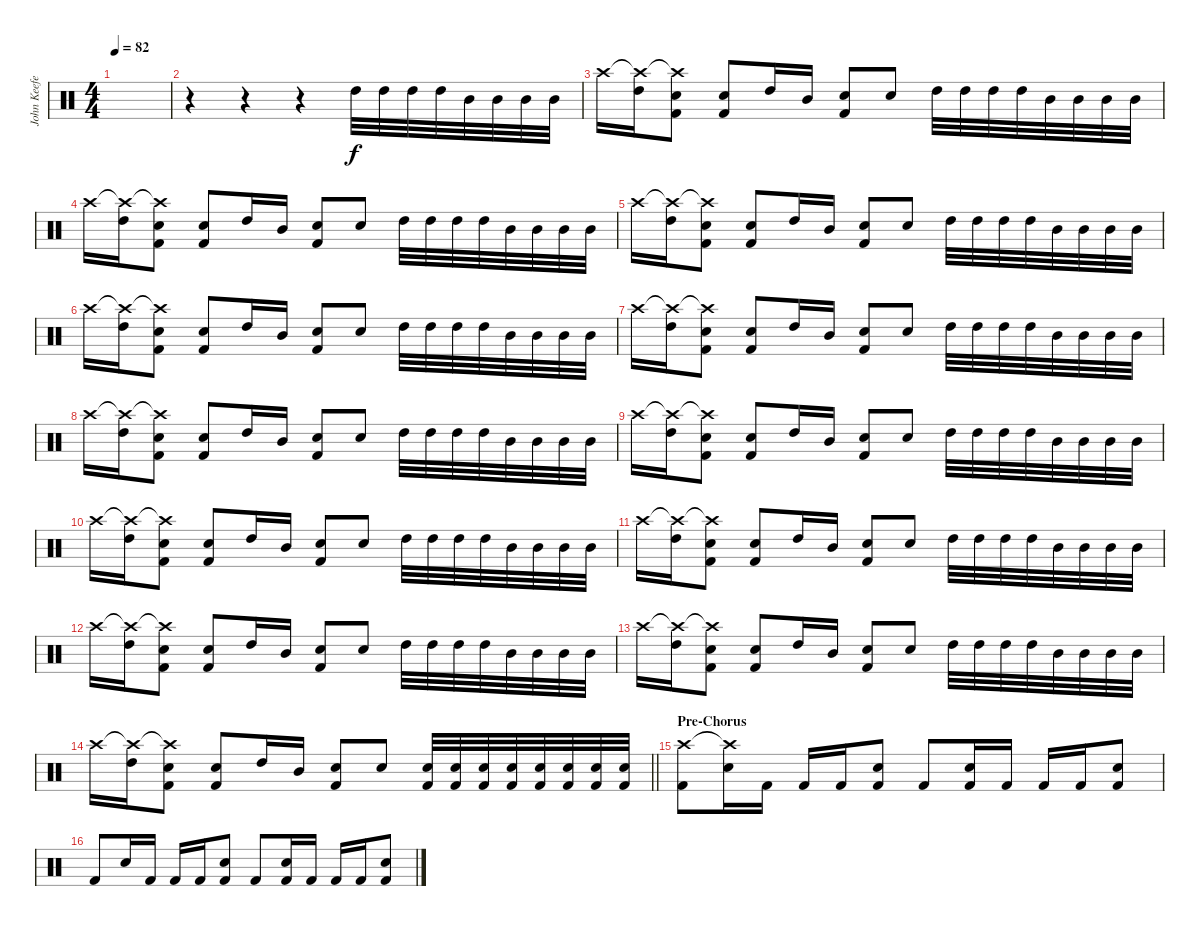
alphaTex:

\track ("John Keefe (Percussion)" "John Keefe") {instrument percussion}
\staff {score}
\articulation defaults
\ts (4 4)
\tempo 82
\clef neutral
\ks c
|
r.4 r.4 r.4 "High Tom (hit)".32 "High Tom (hit)".32 "High Tom (hit)".32 "High Tom (hit)".32 "Mid Tom (hit)".32 "Mid Tom (hit)".32 "Mid Tom (hit)".32 "Mid Tom (hit)".32 |
"Crash high (hit)".16 ("Crash high (hit)"{t} "High Tom (hit)").16 ("Crash high (hit)"{t} "Snare (hit) 2" "Kick (hit) 2").8 ("Snare (hit) 2" "Kick (hit) 2").8 "High Tom (hit)".16 "Mid Tom (hit)".16 ("Snare (hit) 2" "Kick (hit) 2").8 "Snare (hit) 2".8 "High Tom (hit)".32 "High Tom (hit)".32 "High Tom (hit)".32 "High Tom (hit)".32 "Mid Tom (hit)".32 "Mid Tom (hit)".32 "Mid Tom (hit)".32 "Mid Tom (hit)".32 |
"Crash high (hit)".16 ("Crash high (hit)"{t} "High Tom (hit)").16 ("Crash high (hit)"{t} "Snare (hit) 2" "Kick (hit) 2").8 ("Snare (hit) 2" "Kick (hit) 2").8 "High Tom (hit)".16 "Mid Tom (hit)".16 ("Snare (hit) 2" "Kick (hit) 2").8 "Snare (hit) 2".8 "High Tom (hit)".32 "High Tom (hit)".32 "High Tom (hit)".32 "High Tom (hit)".32 "Mid Tom (hit)".32 "Mid Tom (hit)".32 "Mid Tom (hit)".32 "Mid Tom (hit)".32 |
"Crash high (hit)".16 ("Crash high (hit)"{t} "High Tom (hit)").16 ("Crash high (hit)"{t} "Snare (hit) 2" "Kick (hit) 2").8 ("Snare (hit) 2" "Kick (hit) 2").8 "High Tom (hit)".16 "Mid Tom (hit)".16 ("Snare (hit) 2" "Kick (hit) 2").8 "Snare (hit) 2".8 "High Tom (hit)".32 "High Tom (hit)".32 "High Tom (hit)".32 "High Tom (hit)".32 "Mid Tom (hit)".32 "Mid Tom (hit)".32 "Mid Tom (hit)".32 "Mid Tom (hit)".32 |
"Crash high (hit)".16 ("Crash high (hit)"{t} "High Tom (hit)").16 ("Crash high (hit)"{t} "Snare (hit) 2" "Kick (hit) 2").8 ("Snare (hit) 2" "Kick (hit) 2").8 "High Tom (hit)".16 "Mid Tom (hit)".16 ("Snare (hit) 2" "Kick (hit) 2").8 "Snare (hit) 2".8 "High Tom (hit)".32 "High Tom (hit)".32 "High Tom (hit)".32 "High Tom (hit)".32 "Mid Tom (hit)".32 "Mid Tom (hit)".32 "Mid Tom (hit)".32 "Mid Tom (hit)".32 |
"Crash high (hit)".16 ("Crash high (hit)"{t} "High Tom (hit)").16 ("Crash high (hit)"{t} "Snare (hit) 2" "Kick (hit) 2").8 ("Snare (hit) 2" "Kick (hit) 2").8 "High Tom (hit)".16 "Mid Tom (hit)".16 ("Snare (hit) 2" "Kick (hit) 2").8 "Snare (hit) 2".8 "High Tom (hit)".32 "High Tom (hit)".32 "High Tom (hit)".32 "High Tom (hit)".32 "Mid Tom (hit)".32 "Mid Tom (hit)".32 "Mid Tom (hit)".32 "Mid Tom (hit)".32 |
"Crash high (hit)".16 ("Crash high (hit)"{t} "High Tom (hit)").16 ("Crash high (hit)"{t} "Snare (hit) 2" "Kick (hit) 2").8 ("Snare (hit) 2" "Kick (hit) 2").8 "High Tom (hit)".16 "Mid Tom (hit)".16 ("Snare (hit) 2" "Kick (hit) 2").8 "Snare (hit) 2".8 "High Tom (hit)".32 "High Tom (hit)".32 "High Tom (hit)".32 "High Tom (hit)".32 "Mid Tom (hit)".32 "Mid Tom (hit)".32 "Mid Tom (hit)".32 "Mid Tom (hit)".32 |
"Crash high (hit)".16 ("Crash high (hit)"{t} "High Tom (hit)").16 ("Crash high (hit)"{t} "Snare (hit) 2" "Kick (hit) 2").8 ("Snare (hit) 2" "Kick (hit) 2").8 "High Tom (hit)".16 "Mid Tom (hit)".16 ("Snare (hit) 2" "Kick (hit) 2").8 "Snare (hit) 2".8 "High Tom (hit)".32 "High Tom (hit)".32 "High Tom (hit)".32 "High Tom (hit)".32 "Mid Tom (hit)".32 "Mid Tom (hit)".32 "Mid Tom (hit)".32 "Mid Tom (hit)".32 |
"Crash high (hit)".16 ("Crash high (hit)"{t} "High Tom (hit)").16 ("Crash high (hit)"{t} "Snare (hit) 2" "Kick (hit) 2").8 ("Snare (hit) 2" "Kick (hit) 2").8 "High Tom (hit)".16 "Mid Tom (hit)".16 ("Snare (hit) 2" "Kick (hit) 2").8 "Snare (hit) 2".8 "High Tom (hit)".32 "High Tom (hit)".32 "High Tom (hit)".32 "High Tom (hit)".32 "Mid Tom (hit)".32 "Mid Tom (hit)".32 "Mid Tom (hit)".32 "Mid Tom (hit)".32 |
"Crash high (hit)".16 ("Crash high (hit)"{t} "High Tom (hit)").16 ("Crash high (hit)"{t} "Snare (hit) 2" "Kick (hit) 2").8 ("Snare (hit) 2" "Kick (hit) 2").8 "High Tom (hit)".16 "Mid Tom (hit)".16 ("Snare (hit) 2" "Kick (hit) 2").8 "Snare (hit) 2".8 "High Tom (hit)".32 "High Tom (hit)".32 "High Tom (hit)".32 "High Tom (hit)".32 "Mid Tom (hit)".32 "Mid Tom (hit)".32 "Mid Tom (hit)".32 "Mid Tom (hit)".32 |
"Crash high (hit)".16 ("Crash high (hit)"{t} "High Tom (hit)").16 ("Crash high (hit)"{t} "Snare (hit) 2" "Kick (hit) 2").8 ("Snare (hit) 2" "Kick (hit) 2").8 "High Tom (hit)".16 "Mid Tom (hit)".16 ("Snare (hit) 2" "Kick (hit) 2").8 "Snare (hit) 2".8 "High Tom (hit)".32 "High Tom (hit)".32 "High Tom (hit)".32 "High Tom (hit)".32 "Mid Tom (hit)".32 "Mid Tom (hit)".32 "Mid Tom (hit)".32 "Mid Tom (hit)".32 |
"Crash high (hit)".16 ("Crash high (hit)"{t} "High Tom (hit)").16 ("Crash high (hit)"{t} "Snare (hit) 2" "Kick (hit) 2").8 ("Snare (hit) 2" "Kick (hit) 2").8 "High Tom (hit)".16 "Mid Tom (hit)".16 ("Snare (hit) 2" "Kick (hit) 2").8 "Snare (hit) 2".8 "High Tom (hit)".32 "High Tom (hit)".32 "High Tom (hit)".32 "High Tom (hit)".32 "Mid Tom (hit)".32 "Mid Tom (hit)".32 "Mid Tom (hit)".32 "Mid Tom (hit)".32 |
\barLineRight lightlight "Crash high (hit)".16
("Crash high (hit)"{t} "High Tom (hit)").16 ("Crash high (hit)"{t} "Snare (hit) 2" "Kick (hit) 2").8 ("Snare (hit) 2" "Kick (hit) 2").8 "High Tom (hit)".16 "Mid Tom (hit)".16 ("Snare (hit) 2" "Kick (hit) 2").8 "Snare (hit) 2".8 ("Snare (hit) 2" "Kick (hit) 2").32 ("Snare (hit) 2" "Kick (hit) 2").32 ("Snare (hit) 2" "Kick (hit) 2").32 ("Snare (hit) 2" "Kick (hit) 2").32 ("Snare (hit) 2" "Kick (hit) 2").32 ("Snare (hit) 2" "Kick (hit) 2").32 ("Snare (hit) 2" "Kick (hit) 2").32 ("Snare (hit) 2" "Kick (hit) 2").32 |
\section ("" "Pre-Chorus")
("Crash high (hit)" "Kick (hit) 2").8 ("Crash high (hit)"{t} "Snare (hit) 2").16 "Kick (hit) 2".16 "Kick (hit) 2".16 "Kick (hit) 2".16 ("Snare (hit) 2" "Kick (hit) 2").8 "Kick (hit) 2".8 ("Snare (hit) 2" "Kick (hit) 2").16 "Kick (hit) 2".16 "Kick (hit) 2".16 "Kick (hit) 2".16 ("Snare (hit) 2" "Kick (hit) 2").8 |
"Kick (hit) 2".8 "Snare (hit) 2".16 "Kick (hit) 2".16 "Kick (hit) 2".16 "Kick (hit) 2".16 ("Snare (hit) 2" "Kick (hit) 2").8 "Kick (hit) 2".8 ("Snare (hit) 2" "Kick (hit) 2").16 "Kick (hit) 2".16 "Kick (hit) 2".16 "Kick (hit) 2".16 ("Snare (hit) 2" "Kick (hit) 2").8
